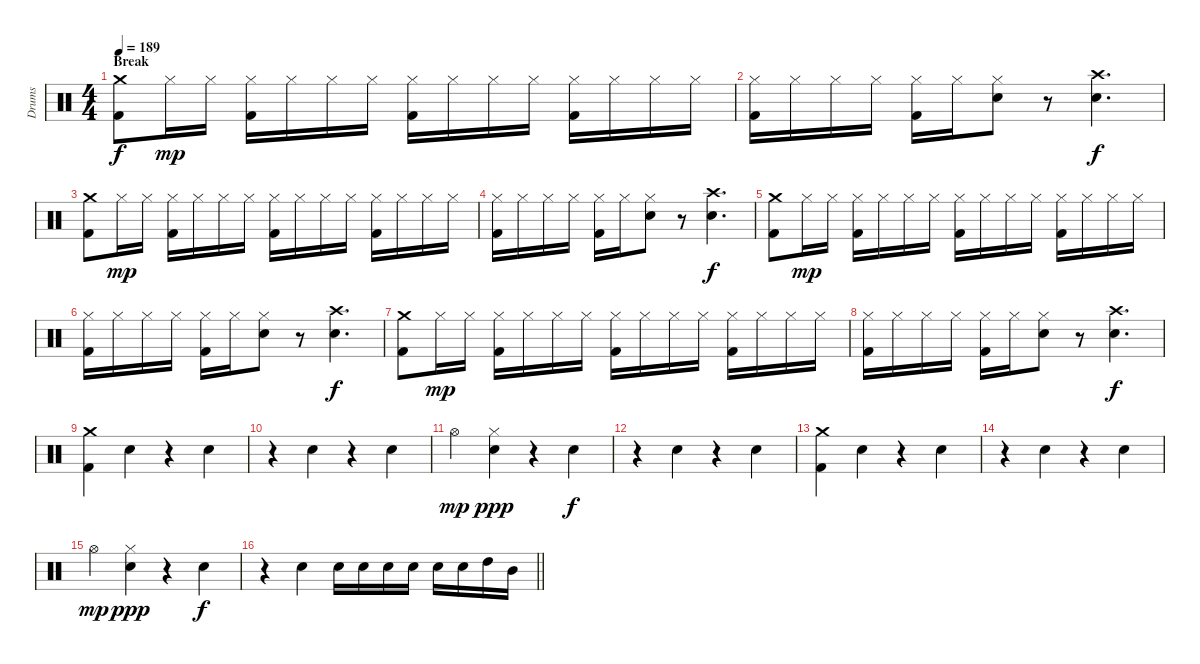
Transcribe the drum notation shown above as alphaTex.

\track ("Drums" "Drums") {instrument percussion}
\staff {score}
\articulation defaults
\ts (4 4)
\section ("" "Break")
\tempo 189
\clef neutral
\ks c
("Crash medium (hit)" "Kick (hit) 2").8{dy f} "Hi-Hat (closed)".16{dy mp} "Hi-Hat (closed)".16 ("Hi-Hat (closed)" "Kick (hit) 2").16 "Hi-Hat (closed)".16 "Hi-Hat (closed)".16 "Hi-Hat (closed)".16 ("Hi-Hat (closed)" "Kick (hit) 2").16 "Hi-Hat (closed)".16 "Hi-Hat (closed)".16 "Hi-Hat (closed)".16 ("Hi-Hat (closed)" "Kick (hit) 2").16 "Hi-Hat (closed)".16 "Hi-Hat (closed)".16 "Hi-Hat (closed)".16 |
("Hi-Hat (closed)" "Kick (hit) 2").16 "Hi-Hat (closed)".16 "Hi-Hat (closed)".16 "Hi-Hat (closed)".16 ("Hi-Hat (closed)" "Kick (hit) 2").16 "Hi-Hat (closed)".16 ("Hi-Hat (closed)" "Snare (hit) 2").8 r.8 ("Crash high (hit)" "Snare (hit) 2").4{d dy f} |
("Crash medium (hit)" "Kick (hit) 2").8 "Hi-Hat (closed)".16{dy mp} "Hi-Hat (closed)".16 ("Hi-Hat (closed)" "Kick (hit) 2").16 "Hi-Hat (closed)".16 "Hi-Hat (closed)".16 "Hi-Hat (closed)".16 ("Hi-Hat (closed)" "Kick (hit) 2").16 "Hi-Hat (closed)".16 "Hi-Hat (closed)".16 "Hi-Hat (closed)".16 ("Hi-Hat (closed)" "Kick (hit) 2").16 "Hi-Hat (closed)".16 "Hi-Hat (closed)".16 "Hi-Hat (closed)".16 |
("Hi-Hat (closed)" "Kick (hit) 2").16 "Hi-Hat (closed)".16 "Hi-Hat (closed)".16 "Hi-Hat (closed)".16 ("Hi-Hat (closed)" "Kick (hit) 2").16 "Hi-Hat (closed)".16 ("Hi-Hat (closed)" "Snare (hit) 2").8 r.8 ("Crash high (hit)" "Snare (hit) 2").4{d dy f} |
("Crash medium (hit)" "Kick (hit) 2").8 "Hi-Hat (closed)".16{dy mp} "Hi-Hat (closed)".16 ("Hi-Hat (closed)" "Kick (hit) 2").16 "Hi-Hat (closed)".16 "Hi-Hat (closed)".16 "Hi-Hat (closed)".16 ("Hi-Hat (closed)" "Kick (hit) 2").16 "Hi-Hat (closed)".16 "Hi-Hat (closed)".16 "Hi-Hat (closed)".16 ("Hi-Hat (closed)" "Kick (hit) 2").16 "Hi-Hat (closed)".16 "Hi-Hat (closed)".16 "Hi-Hat (closed)".16 |
("Hi-Hat (closed)" "Kick (hit) 2").16 "Hi-Hat (closed)".16 "Hi-Hat (closed)".16 "Hi-Hat (closed)".16 ("Hi-Hat (closed)" "Kick (hit) 2").16 "Hi-Hat (closed)".16 ("Hi-Hat (closed)" "Snare (hit) 2").8 r.8 ("Crash high (hit)" "Snare (hit) 2").4{d dy f} |
("Crash medium (hit)" "Kick (hit) 2").8 "Hi-Hat (closed)".16{dy mp} "Hi-Hat (closed)".16 ("Hi-Hat (closed)" "Kick (hit) 2").16 "Hi-Hat (closed)".16 "Hi-Hat (closed)".16 "Hi-Hat (closed)".16 ("Hi-Hat (closed)" "Kick (hit) 2").16 "Hi-Hat (closed)".16 "Hi-Hat (closed)".16 "Hi-Hat (closed)".16 ("Hi-Hat (closed)" "Kick (hit) 2").16 "Hi-Hat (closed)".16 "Hi-Hat (closed)".16 "Hi-Hat (closed)".16 |
("Hi-Hat (closed)" "Kick (hit) 2").16 "Hi-Hat (closed)".16 "Hi-Hat (closed)".16 "Hi-Hat (closed)".16 ("Hi-Hat (closed)" "Kick (hit) 2").16 "Hi-Hat (closed)".16 ("Hi-Hat (closed)" "Snare (hit) 2").8 r.8 ("Crash high (hit)" "Snare (hit) 2").4{d dy f} |
("Crash medium (hit)" "Kick (hit) 2").4 "Snare (hit) 2".4 r.4 "Snare (hit) 2".4 |
r.4 "Snare (hit) 2".4 r.4 "Snare (hit) 2".4 |
"Hi-Hat (open)".4{dy mp} ("Hi-Hat (closed)" "Snare (hit) 2").4{dy ppp} r.4 "Snare (hit) 2".4{dy f} |
r.4 "Snare (hit) 2".4 r.4 "Snare (hit) 2".4 |
("Crash medium (hit)" "Kick (hit) 2").4 "Snare (hit) 2".4 r.4 "Snare (hit) 2".4 |
r.4 "Snare (hit) 2".4 r.4 "Snare (hit) 2".4 |
"Hi-Hat (open)".4{dy mp} ("Hi-Hat (closed)" "Snare (hit) 2").4{dy ppp} r.4 "Snare (hit) 2".4{dy f} |
\barLineRight lightlight
r.4 "Snare (hit) 2".4 "Snare (hit) 2".16 "Snare (hit) 2".16 "Snare (hit) 2".16 "Snare (hit) 2".16 "Snare (hit) 2".16 "Snare (hit) 2".16 "High Tom (hit)".16 "Mid Tom (hit)".16
